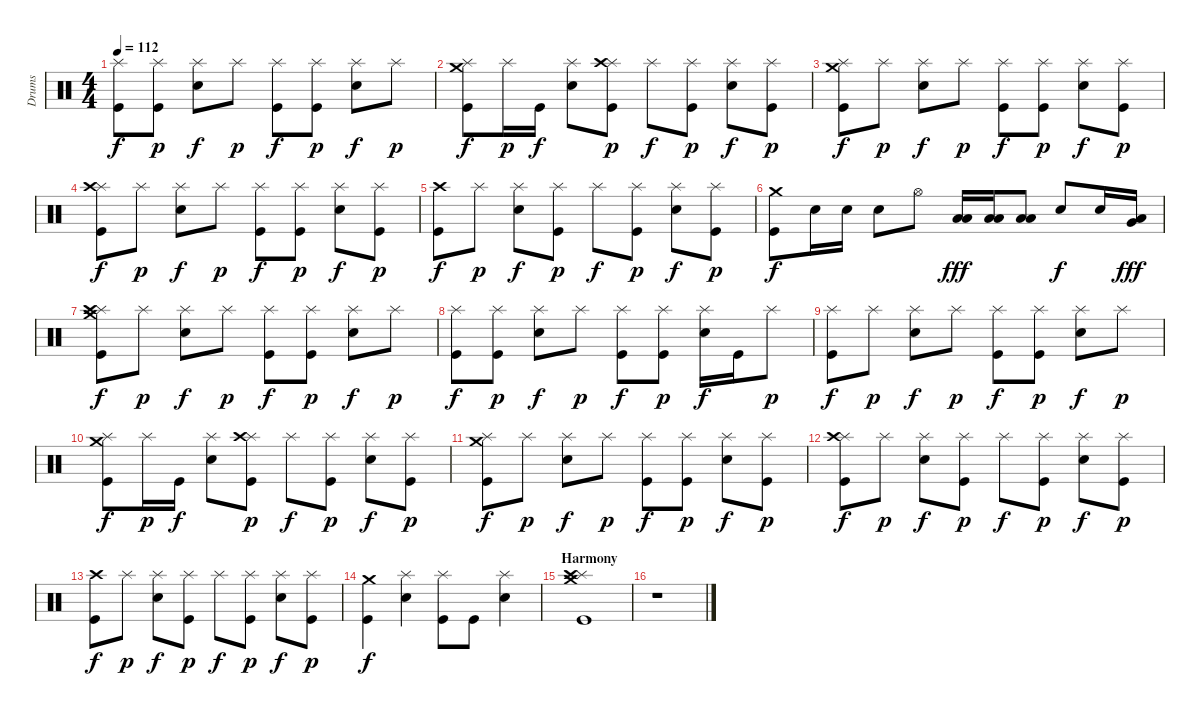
\track ("Drums" "Drums") {instrument percussion}
\staff {score}
\articulation defaults
\ts (4 4)
\tempo 112
\clef neutral
\ks c
("Splash (hit)" "Kick (hit)").8{dy f} ("Splash (hit)" "Kick (hit)").8{dy p} ("Splash (hit)" "Electric Snare (hit)").8{dy f} "Splash (hit)".8{dy p} ("Splash (hit)" "Kick (hit)").8{dy f} ("Splash (hit)" "Kick (hit)").8{dy p} ("Splash (hit)" "Electric Snare (hit)").8{dy f} "Splash (hit)".8{dy p} |
("Crash medium (hit)" "Splash (hit)" "Kick (hit)").8{dy f} "Splash (hit)".16{dy p} "Kick (hit)".16{dy f} ("Splash (hit)" "Electric Snare (hit)").8 ("Splash (hit)" "Crash high (hit)" "Kick (hit)").8{dy p} "Splash (hit)".8{dy f} ("Splash (hit)" "Kick (hit)").8{dy p} ("Splash (hit)" "Electric Snare (hit)").8{dy f} ("Splash (hit)" "Kick (hit)").8{dy p} |
("Crash medium (hit)" "Splash (hit)" "Kick (hit)").8{dy f} "Splash (hit)".8{dy p} ("Splash (hit)" "Electric Snare (hit)").8{dy f} "Splash (hit)".8{dy p} ("Splash (hit)" "Kick (hit)").8{dy f} ("Splash (hit)" "Kick (hit)").8{dy p} ("Splash (hit)" "Electric Snare (hit)").8{dy f} ("Splash (hit)" "Kick (hit)").8{dy p} |
("Splash (hit)" "Crash high (hit)" "Kick (hit)").8{dy f} "Splash (hit)".8{dy p} ("Splash (hit)" "Electric Snare (hit)").8{dy f} "Splash (hit)".8{dy p} ("Splash (hit)" "Kick (hit)").8{dy f} ("Splash (hit)" "Kick (hit)").8{dy p} ("Splash (hit)" "Electric Snare (hit)").8{dy f} ("Splash (hit)" "Kick (hit)").8{dy p} |
("Crash high (hit)" "Kick (hit)").8{dy f} "Splash (hit)".8{dy p} ("Splash (hit)" "Electric Snare (hit)").8{dy f} ("Splash (hit)" "Kick (hit)").8{dy p} "Splash (hit)".8{dy f} ("Splash (hit)" "Kick (hit)").8{dy p} ("Splash (hit)" "Electric Snare (hit)").8{dy f} ("Splash (hit)" "Kick (hit)").8{dy p} |
("Crash medium (hit)" "Kick (hit)").8{dy f} "Electric Snare (hit)".16 "Electric Snare (hit)".16 "Electric Snare (hit)".8 "Hi-Hat (open)".8 ("Low Floor Tom (hit)" "Low Tom (hit)").16{dy fff} ("Low Floor Tom (hit)" "Low Tom (hit)").16 ("Low Floor Tom (hit)" "Low Tom (hit)").8 "Electric Snare (hit)".8{dy f} "Electric Snare (hit)".16 ("Low Floor Tom (hit)" "Very Low Tom (hit)").16{dy fff} |
("Crash medium (hit)" "Splash (hit)" "Crash high (hit)" "Kick (hit)").8{dy f} "Splash (hit)".8{dy p} ("Splash (hit)" "Electric Snare (hit)").8{dy f} "Splash (hit)".8{dy p} ("Splash (hit)" "Kick (hit)").8{dy f} ("Splash (hit)" "Kick (hit)").8{dy p} ("Splash (hit)" "Electric Snare (hit)").8{dy f} "Splash (hit)".8{dy p} |
("Splash (hit)" "Kick (hit)").8{dy f} ("Splash (hit)" "Kick (hit)").8{dy p} ("Splash (hit)" "Electric Snare (hit)").8{dy f} "Splash (hit)".8{dy p} ("Splash (hit)" "Kick (hit)").8{dy f} ("Splash (hit)" "Kick (hit)").8{dy p} ("Splash (hit)" "Electric Snare (hit)").16{dy f} "Kick (hit)".16 "Splash (hit)".8{dy p} |
("Splash (hit)" "Kick (hit)").8{dy f} "Splash (hit)".8{dy p} ("Splash (hit)" "Electric Snare (hit)").8{dy f} "Splash (hit)".8{dy p} ("Splash (hit)" "Kick (hit)").8{dy f} ("Splash (hit)" "Kick (hit)").8{dy p} ("Splash (hit)" "Electric Snare (hit)").8{dy f} "Splash (hit)".8{dy p} |
("Crash medium (hit)" "Splash (hit)" "Kick (hit)").8{dy f} "Splash (hit)".16{dy p} "Kick (hit)".16{dy f} ("Splash (hit)" "Electric Snare (hit)").8 ("Splash (hit)" "Crash high (hit)" "Kick (hit)").8{dy p} "Splash (hit)".8{dy f} ("Splash (hit)" "Kick (hit)").8{dy p} ("Splash (hit)" "Electric Snare (hit)").8{dy f} ("Splash (hit)" "Kick (hit)").8{dy p} |
("Crash medium (hit)" "Splash (hit)" "Kick (hit)").8{dy f} "Splash (hit)".8{dy p} ("Splash (hit)" "Electric Snare (hit)").8{dy f} "Splash (hit)".8{dy p} ("Splash (hit)" "Kick (hit)").8{dy f} ("Splash (hit)" "Kick (hit)").8{dy p} ("Splash (hit)" "Electric Snare (hit)").8{dy f} ("Splash (hit)" "Kick (hit)").8{dy p} |
("Splash (hit)" "Crash high (hit)" "Kick (hit)").8{dy f} "Splash (hit)".8{dy p} ("Splash (hit)" "Electric Snare (hit)").8{dy f} ("Splash (hit)" "Kick (hit)").8{dy p} "Splash (hit)".8{dy f} ("Splash (hit)" "Kick (hit)").8{dy p} ("Splash (hit)" "Electric Snare (hit)").8{dy f} ("Splash (hit)" "Kick (hit)").8{dy p} |
("Crash high (hit)" "Kick (hit)").8{dy f} "Splash (hit)".8{dy p} ("Splash (hit)" "Electric Snare (hit)").8{dy f} ("Splash (hit)" "Kick (hit)").8{dy p} "Splash (hit)".8{dy f} ("Splash (hit)" "Kick (hit)").8{dy p} ("Splash (hit)" "Electric Snare (hit)").8{dy f} ("Splash (hit)" "Kick (hit)").8{dy p} |
("Crash medium (hit)" "Kick (hit)").4{dy f} ("Splash (hit)" "Electric Snare (hit)").4 ("Splash (hit)" "Kick (hit)").8 "Kick (hit)".8 ("Splash (hit)" "Electric Snare (hit)").4 |
\section ("" "Harmony")
("Crash medium (hit)" "Splash (hit)" "Crash high (hit)" "Kick (hit)").1 |
r.1
